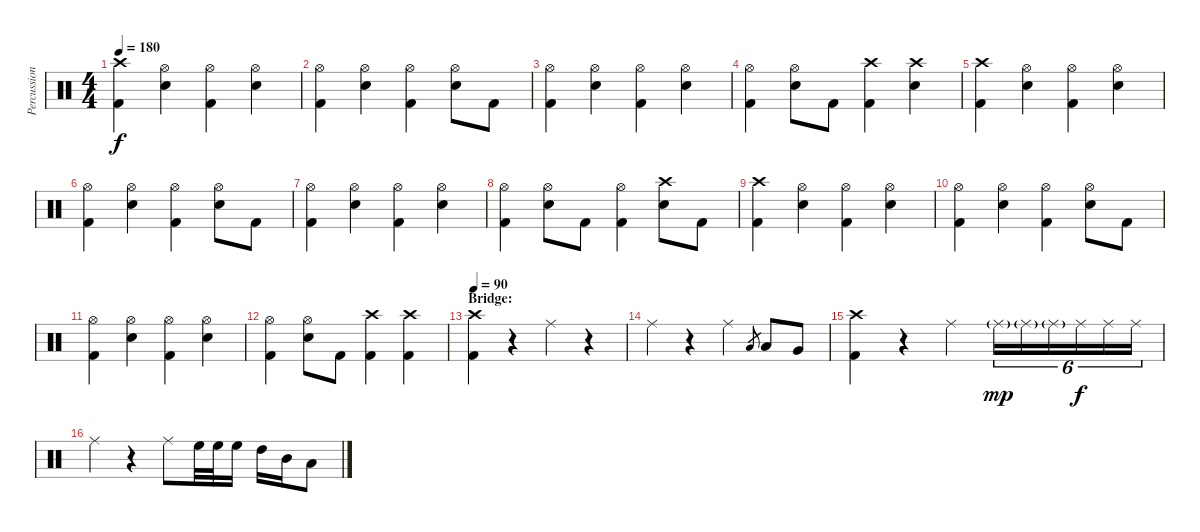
\track ("Percussion" "Percussion") {instrument percussion}
\staff {score}
\articulation defaults
\ts (4 4)
\tempo 180
\clef neutral
\ks c
("Crash high (hit)" "Kick (hit) 2").4{dy f} ("Hi-Hat (open)" "Electric Snare (hit)").4 ("Hi-Hat (open)" "Kick (hit) 2").4 ("Hi-Hat (open)" "Electric Snare (hit)").4 |
("Hi-Hat (open)" "Kick (hit) 2").4 ("Hi-Hat (open)" "Electric Snare (hit)").4 ("Hi-Hat (open)" "Kick (hit) 2").4 ("Hi-Hat (open)" "Electric Snare (hit)").8 "Kick (hit) 2".8 |
("Hi-Hat (open)" "Kick (hit) 2").4 ("Hi-Hat (open)" "Electric Snare (hit)").4 ("Hi-Hat (open)" "Kick (hit) 2").4 ("Hi-Hat (open)" "Electric Snare (hit)").4 |
("Hi-Hat (open)" "Kick (hit) 2").4 ("Hi-Hat (open)" "Electric Snare (hit)").8 "Kick (hit) 2".8 ("Crash high (hit)" "Kick (hit) 2").4 ("Crash high (hit)" "Electric Snare (hit)").4 |
("Crash high (hit)" "Kick (hit) 2").4 ("Hi-Hat (open)" "Electric Snare (hit)").4 ("Hi-Hat (open)" "Kick (hit) 2").4 ("Hi-Hat (open)" "Electric Snare (hit)").4 |
("Hi-Hat (open)" "Kick (hit) 2").4 ("Hi-Hat (open)" "Electric Snare (hit)").4 ("Hi-Hat (open)" "Kick (hit) 2").4 ("Hi-Hat (open)" "Electric Snare (hit)").8 "Kick (hit) 2".8 |
("Hi-Hat (open)" "Kick (hit) 2").4 ("Hi-Hat (open)" "Electric Snare (hit)").4 ("Hi-Hat (open)" "Kick (hit) 2").4 ("Hi-Hat (open)" "Electric Snare (hit)").4 |
("Hi-Hat (open)" "Kick (hit) 2").4 ("Hi-Hat (open)" "Electric Snare (hit)").8 "Kick (hit) 2".8 ("Hi-Hat (open)" "Kick (hit) 2").4 ("Crash high (hit)" "Electric Snare (hit)").8 "Kick (hit) 2".8 |
("Crash high (hit)" "Kick (hit) 2").4 ("Hi-Hat (open)" "Electric Snare (hit)").4 ("Hi-Hat (open)" "Kick (hit) 2").4 ("Hi-Hat (open)" "Electric Snare (hit)").4 |
("Hi-Hat (open)" "Kick (hit) 2").4 ("Hi-Hat (open)" "Electric Snare (hit)").4 ("Hi-Hat (open)" "Kick (hit) 2").4 ("Hi-Hat (open)" "Electric Snare (hit)").8 "Kick (hit) 2".8 |
("Hi-Hat (open)" "Kick (hit) 2").4 ("Hi-Hat (open)" "Electric Snare (hit)").4 ("Hi-Hat (open)" "Kick (hit) 2").4 ("Hi-Hat (open)" "Electric Snare (hit)").4 |
("Hi-Hat (open)" "Kick (hit) 2").4 ("Hi-Hat (open)" "Electric Snare (hit)").8 "Kick (hit) 2".8 ("Crash high (hit)" "Kick (hit) 2").4 ("Crash high (hit)" "Kick (hit) 2").4 |
\section ("" "Bridge:")
\tempo 90
("Crash high (hit)" "Kick (hit) 2").4 r.4 "Ride (middle)".4 r.4 |
"Ride (middle)".4 r.4 "Ride (middle)".4 "Low Tom (hit)".8{gr} "Low Tom (hit)".8 "Very Low Tom (hit)".8 |
("Crash high (hit)" "Kick (hit) 2").4 r.4 "Ride (middle)".4 "Ride (middle)"{g}.16{tu (6 4) dy mp} "Ride (middle)"{g}.16{tu (6 4)} "Ride (middle)"{g}.16{tu (6 4)} "Ride (middle)".16{tu (6 4) dy f} "Ride (middle)".16{tu (6 4)} "Ride (middle)".16{tu (6 4)} |
"Ride (middle)".4 r.4 "Ride (middle)".8 "High Floor Tom (hit)".32 "High Floor Tom (hit)".32 "High Floor Tom (hit)".16 "High Tom (hit)".16 "Mid Tom (hit)".16 "Low Tom (hit)".8
